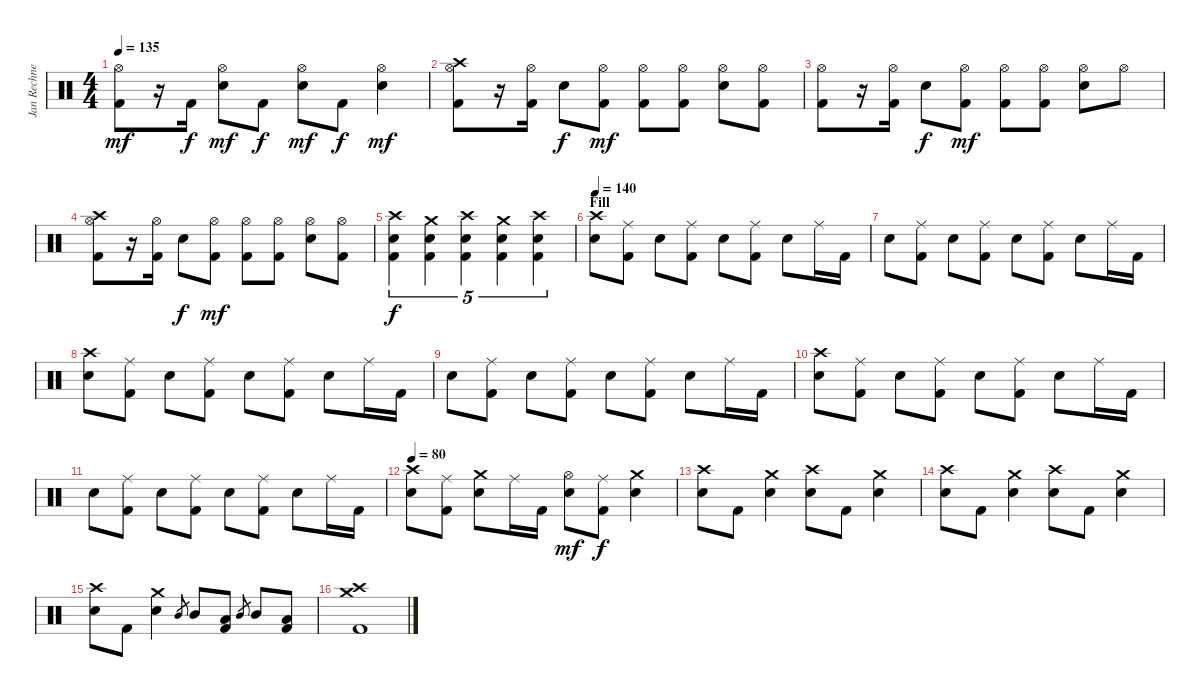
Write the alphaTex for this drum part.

\track ("Jan Rechnerger" "Jan Rechne") {instrument percussion}
\staff {score}
\articulation defaults
\ts (4 4)
\tempo 135
\clef neutral
\ks c
("Hi-Hat (open)" "Kick (hit) 2").8{dy mf} r.16 "Kick (hit) 2".16{dy f} ("Hi-Hat (open)" "Snare (hit) 2").8{dy mf} "Kick (hit) 2".8{dy f} ("Hi-Hat (open)" "Snare (hit) 2").8{dy mf} "Kick (hit) 2".8{dy f} ("Hi-Hat (open)" "Snare (hit) 2").4{dy mf} |
("Crash high (hit)" "Hi-Hat (open)" "Kick (hit) 2").8 r.16 ("Hi-Hat (open)" "Kick (hit) 2").16 "Snare (hit) 2".8{dy f} ("Hi-Hat (open)" "Kick (hit) 2").8{dy mf} ("Hi-Hat (open)" "Kick (hit) 2").8 ("Hi-Hat (open)" "Kick (hit) 2").8 ("Hi-Hat (open)" "Snare (hit) 2").8 ("Hi-Hat (open)" "Kick (hit) 2").8 |
("Hi-Hat (open)" "Kick (hit) 2").8 r.16 ("Hi-Hat (open)" "Kick (hit) 2").16 "Snare (hit) 2".8{dy f} ("Hi-Hat (open)" "Kick (hit) 2").8{dy mf} ("Hi-Hat (open)" "Kick (hit) 2").8 ("Hi-Hat (open)" "Kick (hit) 2").8 ("Hi-Hat (open)" "Snare (hit) 2").8 "Hi-Hat (open)".8 |
("Crash high (hit)" "Hi-Hat (open)" "Kick (hit) 2").8 r.16 ("Hi-Hat (open)" "Kick (hit) 2").16 "Snare (hit) 2".8{dy f} ("Hi-Hat (open)" "Kick (hit) 2").8{dy mf} ("Hi-Hat (open)" "Kick (hit) 2").8 ("Hi-Hat (open)" "Kick (hit) 2").8 ("Hi-Hat (open)" "Snare (hit) 2").8 ("Hi-Hat (open)" "Kick (hit) 2").8 |
("Crash high (hit)" "Snare (hit) 2" "Kick (hit) 2").4{tu (5 4) dy f} ("Crash medium (hit)" "Snare (hit) 2" "Kick (hit) 2").4{tu (5 4)} ("Crash high (hit)" "Snare (hit) 2" "Kick (hit) 2").4{tu (5 4)} ("Crash medium (hit)" "Snare (hit) 2" "Kick (hit) 2").4{tu (5 4)} ("Crash high (hit)" "Snare (hit) 2" "Kick (hit) 2").4{tu (5 4)} |
\section ("" "Fill")
\tempo 140
("Crash high (hit)" "Snare (hit) 2").8 ("Ride (middle)" "Kick (hit) 2").8 "Snare (hit) 2".8 ("Ride (middle)" "Kick (hit) 2").8 "Snare (hit) 2".8 ("Ride (middle)" "Kick (hit) 2").8 "Snare (hit) 2".8 "Ride (middle)".16 "Kick (hit) 2".16 |
"Snare (hit) 2".8 ("Ride (middle)" "Kick (hit) 2").8 "Snare (hit) 2".8 ("Ride (middle)" "Kick (hit) 2").8 "Snare (hit) 2".8 ("Ride (middle)" "Kick (hit) 2").8 "Snare (hit) 2".8 "Ride (middle)".16 "Kick (hit) 2".16 |
("Crash high (hit)" "Snare (hit) 2").8 ("Ride (middle)" "Kick (hit) 2").8 "Snare (hit) 2".8 ("Ride (middle)" "Kick (hit) 2").8 "Snare (hit) 2".8 ("Ride (middle)" "Kick (hit) 2").8 "Snare (hit) 2".8 "Ride (middle)".16 "Kick (hit) 2".16 |
"Snare (hit) 2".8 ("Ride (middle)" "Kick (hit) 2").8 "Snare (hit) 2".8 ("Ride (middle)" "Kick (hit) 2").8 "Snare (hit) 2".8 ("Ride (middle)" "Kick (hit) 2").8 "Snare (hit) 2".8 "Ride (middle)".16 "Kick (hit) 2".16 |
("Crash high (hit)" "Snare (hit) 2").8 ("Ride (middle)" "Kick (hit) 2").8 "Snare (hit) 2".8 ("Ride (middle)" "Kick (hit) 2").8 "Snare (hit) 2".8 ("Ride (middle)" "Kick (hit) 2").8 "Snare (hit) 2".8 "Ride (middle)".16 "Kick (hit) 2".16 |
"Snare (hit) 2".8 ("Ride (middle)" "Kick (hit) 2").8 "Snare (hit) 2".8 ("Ride (middle)" "Kick (hit) 2").8 "Snare (hit) 2".8 ("Ride (middle)" "Kick (hit) 2").8 "Snare (hit) 2".8 "Ride (middle)".16 "Kick (hit) 2".16 |
\tempo 80
("Crash high (hit)" "Snare (hit) 2").8 ("Ride (middle)" "Kick (hit) 2").8 ("Crash medium (hit)" "Snare (hit) 2").8 "Ride (middle)".16 "Kick (hit) 2".16 ("Hi-Hat (open)" "Snare (hit) 2").8{dy mf} ("Ride (middle)" "Kick (hit) 2").8{dy f} ("Crash medium (hit)" "Snare (hit) 2").4 |
("Crash high (hit)" "Snare (hit) 2").8 "Kick (hit) 2".8 ("Crash medium (hit)" "Snare (hit) 2").4 ("Crash high (hit)" "Snare (hit) 2").8 "Kick (hit) 2".8 ("Crash medium (hit)" "Snare (hit) 2").4 |
("Crash high (hit)" "Snare (hit) 2").8 "Kick (hit) 2".8 ("Crash medium (hit)" "Snare (hit) 2").4 ("Crash high (hit)" "Snare (hit) 2").8 "Kick (hit) 2".8 ("Crash medium (hit)" "Snare (hit) 2").4 |
("Crash high (hit)" "Snare (hit) 2").8 "Kick (hit) 2".8 ("Crash medium (hit)" "Snare (hit) 2").4 "Mid Tom (hit)".8{gr} "Mid Tom (hit)".8 ("Low Tom (hit)" "Kick (hit) 2").8 "Mid Tom (hit)".8{gr} "Mid Tom (hit)".8 ("Low Tom (hit)" "Kick (hit) 2").8 |
("Crash high (hit)" "Crash medium (hit)" "Kick (hit) 2").1
